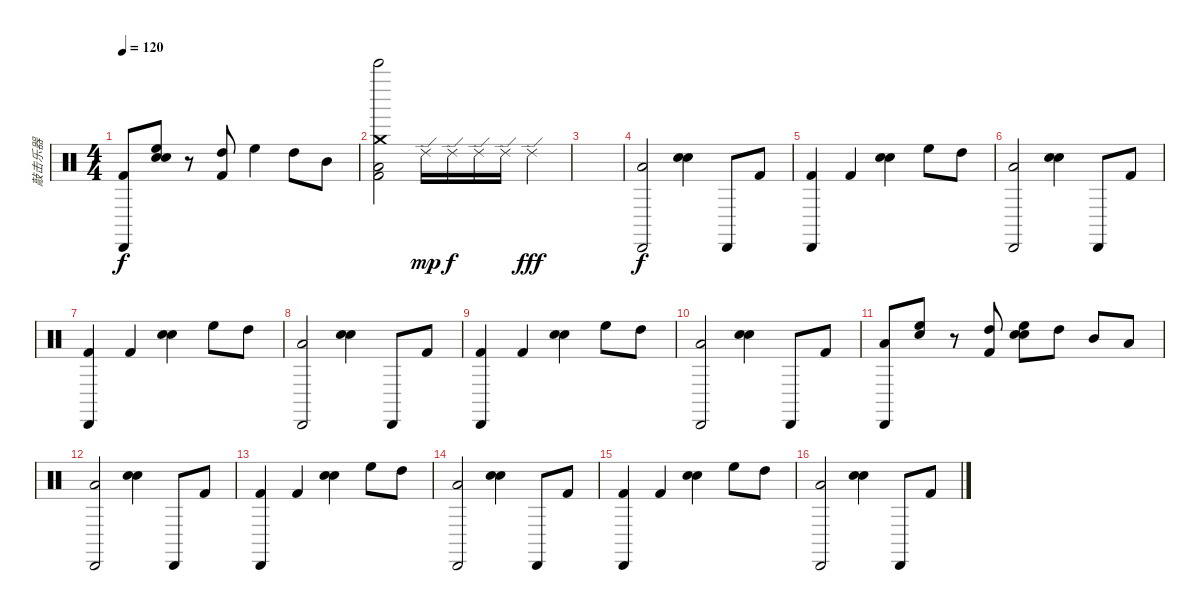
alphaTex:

\track ("敲击乐器" "敲击乐器") {instrument percussion}
\staff {score}
\articulation defaults
\ts (4 4)
\tempo 120
\clef neutral
\ks c
("Kick (hit) 2" "Cabasa (hit)").8{dy f} ("High Floor Tom (hit)" "Hand Clap (hit)" "Electric Snare (hit)").8 r.8 ("High Tom (hit)" "Kick (hit) 2").8 "High Floor Tom (hit)".4 "High Tom (hit)".8 "Mid Tom (hit)".8 |
("Crash medium (hit)" "Low Tom (hit)" "Kick (hit) 2" "Bell Tree (hit)").2 "Ride (edge) 2".16{dy mp} "Ride (edge) 2".16{dy f} "Ride (edge) 2".16 "Ride (edge) 2".16 "Ride (edge) 2".4{dy fff} |
|
("Low Tom (hit)" "Cabasa (hit)").2{dy f} ("Electric Snare (hit)" "Hand Clap (hit)").4 "Cabasa (hit)".8 "Kick (hit) 2".8 |
("Kick (hit) 2" "Cabasa (hit)").4 "Kick (hit) 2".4 ("Electric Snare (hit)" "Hand Clap (hit)").4 "High Floor Tom (hit)".8 "High Tom (hit)".8 |
("Low Tom (hit)" "Cabasa (hit)").2 ("Electric Snare (hit)" "Hand Clap (hit)").4 "Cabasa (hit)".8 "Kick (hit) 2".8 |
("Kick (hit) 2" "Cabasa (hit)").4 "Kick (hit) 2".4 ("Electric Snare (hit)" "Hand Clap (hit)").4 "High Floor Tom (hit)".8 "High Tom (hit)".8 |
("Low Tom (hit)" "Cabasa (hit)").2 ("Electric Snare (hit)" "Hand Clap (hit)").4 "Cabasa (hit)".8 "Kick (hit) 2".8 |
("Kick (hit) 2" "Cabasa (hit)").4 "Kick (hit) 2".4 ("Electric Snare (hit)" "Hand Clap (hit)").4 "High Floor Tom (hit)".8 "High Tom (hit)".8 |
("Low Tom (hit)" "Cabasa (hit)").2 ("Electric Snare (hit)" "Hand Clap (hit)").4 "Cabasa (hit)".8 "Kick (hit) 2".8 |
("Low Tom (hit)" "Cabasa (hit)").8 ("High Floor Tom (hit)" "Electric Snare (hit)").8 r.8 ("High Tom (hit)" "Kick (hit) 2").8 ("High Floor Tom (hit)" "Electric Snare (hit)" "Hand Clap (hit)").8 "High Tom (hit)".8 "Mid Tom (hit)".8 "Low Tom (hit)".8 |
("Low Tom (hit)" "Cabasa (hit)").2 ("Electric Snare (hit)" "Hand Clap (hit)").4 "Cabasa (hit)".8 "Kick (hit) 2".8 |
("Kick (hit) 2" "Cabasa (hit)").4 "Kick (hit) 2".4 ("Electric Snare (hit)" "Hand Clap (hit)").4 "High Floor Tom (hit)".8 "High Tom (hit)".8 |
("Low Tom (hit)" "Cabasa (hit)").2 ("Electric Snare (hit)" "Hand Clap (hit)").4 "Cabasa (hit)".8 "Kick (hit) 2".8 |
("Kick (hit) 2" "Cabasa (hit)").4 "Kick (hit) 2".4 ("Electric Snare (hit)" "Hand Clap (hit)").4 "High Floor Tom (hit)".8 "High Tom (hit)".8 |
("Low Tom (hit)" "Cabasa (hit)").2 ("Electric Snare (hit)" "Hand Clap (hit)").4 "Cabasa (hit)".8 "Kick (hit) 2".8
